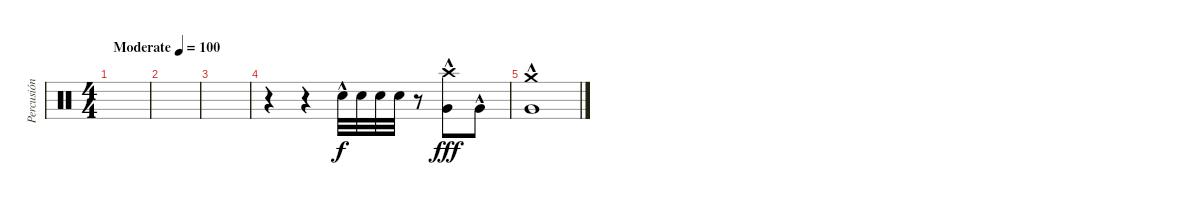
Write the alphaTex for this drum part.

\track ("Percusión" "Percusión") {instrument percussion}
\staff {score}
\articulation defaults
\ts (4 4)
\tempo (100 "Moderate")
\clef neutral
\ks c
|
|
|
r.4 r.4 "Electric Snare (hit)"{hac}.32 "Electric Snare (hit)".32{dy f} "Electric Snare (hit)".32 "Electric Snare (hit)".32 r.8 ("Very Low Tom (hit)"{hac} "Crash high (hit)"{hac}).8{dy fff} "Very Low Tom (hit)"{hac}.8 |
("Very Low Tom (hit)"{hac} "Crash medium (hit)"{hac}).1
